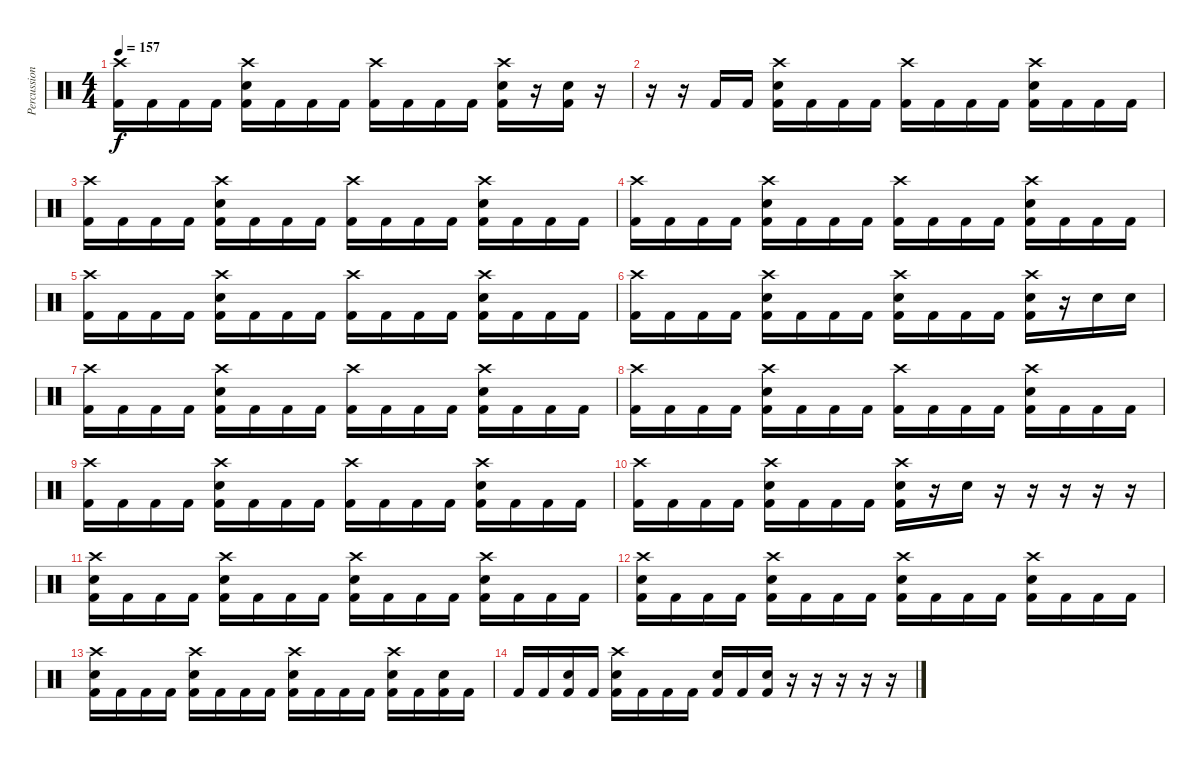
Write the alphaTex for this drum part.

\track ("Percussion" "Percussion") {instrument percussion}
\staff {score}
\articulation defaults
\ts (4 4)
\tempo 157
\clef neutral
\ks c
("Crash high (hit)" "Kick (hit) 2").16{dy f} "Kick (hit) 2".16 "Kick (hit) 2".16 "Kick (hit) 2".16 ("Crash high (hit)" "Electric Snare (hit)" "Kick (hit) 2").16 "Kick (hit) 2".16 "Kick (hit) 2".16 "Kick (hit) 2".16 ("Crash high (hit)" "Kick (hit) 2").16 "Kick (hit) 2".16 "Kick (hit) 2".16 "Kick (hit) 2".16 ("Crash high (hit)" "Electric Snare (hit)" "Kick (hit) 2").16 r.16 ("Electric Snare (hit)" "Kick (hit) 2").16 r.16 |
r.16 r.16 "Kick (hit) 2".16 "Kick (hit) 2".16 ("Crash high (hit)" "Electric Snare (hit)" "Kick (hit) 2").16 "Kick (hit) 2".16 "Kick (hit) 2".16 "Kick (hit) 2".16 ("Crash high (hit)" "Kick (hit) 2").16 "Kick (hit) 2".16 "Kick (hit) 2".16 "Kick (hit) 2".16 ("Crash high (hit)" "Electric Snare (hit)" "Kick (hit) 2").16 "Kick (hit) 2".16 "Kick (hit) 2".16 "Kick (hit) 2".16 |
("Crash high (hit)" "Kick (hit) 2").16 "Kick (hit) 2".16 "Kick (hit) 2".16 "Kick (hit) 2".16 ("Crash high (hit)" "Electric Snare (hit)" "Kick (hit) 2").16 "Kick (hit) 2".16 "Kick (hit) 2".16 "Kick (hit) 2".16 ("Crash high (hit)" "Kick (hit) 2").16 "Kick (hit) 2".16 "Kick (hit) 2".16 "Kick (hit) 2".16 ("Crash high (hit)" "Electric Snare (hit)" "Kick (hit) 2").16 "Kick (hit) 2".16 "Kick (hit) 2".16 "Kick (hit) 2".16 |
("Crash high (hit)" "Kick (hit) 2").16 "Kick (hit) 2".16 "Kick (hit) 2".16 "Kick (hit) 2".16 ("Crash high (hit)" "Electric Snare (hit)" "Kick (hit) 2").16 "Kick (hit) 2".16 "Kick (hit) 2".16 "Kick (hit) 2".16 ("Crash high (hit)" "Kick (hit) 2").16 "Kick (hit) 2".16 "Kick (hit) 2".16 "Kick (hit) 2".16 ("Crash high (hit)" "Electric Snare (hit)" "Kick (hit) 2").16 "Kick (hit) 2".16 "Kick (hit) 2".16 "Kick (hit) 2".16 |
("Crash high (hit)" "Kick (hit) 2").16 "Kick (hit) 2".16 "Kick (hit) 2".16 "Kick (hit) 2".16 ("Crash high (hit)" "Electric Snare (hit)" "Kick (hit) 2").16 "Kick (hit) 2".16 "Kick (hit) 2".16 "Kick (hit) 2".16 ("Crash high (hit)" "Kick (hit) 2").16 "Kick (hit) 2".16 "Kick (hit) 2".16 "Kick (hit) 2".16 ("Crash high (hit)" "Electric Snare (hit)" "Kick (hit) 2").16 "Kick (hit) 2".16 "Kick (hit) 2".16 "Kick (hit) 2".16 |
("Crash high (hit)" "Kick (hit) 2").16 "Kick (hit) 2".16 "Kick (hit) 2".16 "Kick (hit) 2".16 ("Crash high (hit)" "Electric Snare (hit)" "Kick (hit) 2").16 "Kick (hit) 2".16 "Kick (hit) 2".16 "Kick (hit) 2".16 ("Crash high (hit)" "Electric Snare (hit)" "Kick (hit) 2").16 "Kick (hit) 2".16 "Kick (hit) 2".16 "Kick (hit) 2".16 ("Crash high (hit)" "Electric Snare (hit)" "Kick (hit) 2").16 r.16 "Electric Snare (hit)".16 "Electric Snare (hit)".16 |
("Crash high (hit)" "Kick (hit) 2").16 "Kick (hit) 2".16 "Kick (hit) 2".16 "Kick (hit) 2".16 ("Crash high (hit)" "Electric Snare (hit)" "Kick (hit) 2").16 "Kick (hit) 2".16 "Kick (hit) 2".16 "Kick (hit) 2".16 ("Crash high (hit)" "Kick (hit) 2").16 "Kick (hit) 2".16 "Kick (hit) 2".16 "Kick (hit) 2".16 ("Crash high (hit)" "Electric Snare (hit)" "Kick (hit) 2").16 "Kick (hit) 2".16 "Kick (hit) 2".16 "Kick (hit) 2".16 |
("Crash high (hit)" "Kick (hit) 2").16 "Kick (hit) 2".16 "Kick (hit) 2".16 "Kick (hit) 2".16 ("Crash high (hit)" "Electric Snare (hit)" "Kick (hit) 2").16 "Kick (hit) 2".16 "Kick (hit) 2".16 "Kick (hit) 2".16 ("Crash high (hit)" "Kick (hit) 2").16 "Kick (hit) 2".16 "Kick (hit) 2".16 "Kick (hit) 2".16 ("Crash high (hit)" "Electric Snare (hit)" "Kick (hit) 2").16 "Kick (hit) 2".16 "Kick (hit) 2".16 "Kick (hit) 2".16 |
("Crash high (hit)" "Kick (hit) 2").16 "Kick (hit) 2".16 "Kick (hit) 2".16 "Kick (hit) 2".16 ("Crash high (hit)" "Electric Snare (hit)" "Kick (hit) 2").16 "Kick (hit) 2".16 "Kick (hit) 2".16 "Kick (hit) 2".16 ("Crash high (hit)" "Kick (hit) 2").16 "Kick (hit) 2".16 "Kick (hit) 2".16 "Kick (hit) 2".16 ("Crash high (hit)" "Electric Snare (hit)" "Kick (hit) 2").16 "Kick (hit) 2".16 "Kick (hit) 2".16 "Kick (hit) 2".16 |
("Crash high (hit)" "Kick (hit) 2").16 "Kick (hit) 2".16 "Kick (hit) 2".16 "Kick (hit) 2".16 ("Crash high (hit)" "Electric Snare (hit)" "Kick (hit) 2").16 "Kick (hit) 2".16 "Kick (hit) 2".16 "Kick (hit) 2".16 ("Crash high (hit)" "Electric Snare (hit)" "Kick (hit) 2").16 r.16 "Electric Snare (hit)".16 r.16 r.16 r.16 r.16 r.16 |
("Crash high (hit)" "Electric Snare (hit)" "Kick (hit) 2").16 "Kick (hit) 2".16 "Kick (hit) 2".16 "Kick (hit) 2".16 ("Crash high (hit)" "Electric Snare (hit)" "Kick (hit) 2").16 "Kick (hit) 2".16 "Kick (hit) 2".16 "Kick (hit) 2".16 ("Crash high (hit)" "Electric Snare (hit)" "Kick (hit) 2").16 "Kick (hit) 2".16 "Kick (hit) 2".16 "Kick (hit) 2".16 ("Crash high (hit)" "Electric Snare (hit)" "Kick (hit) 2").16 "Kick (hit) 2".16 "Kick (hit) 2".16 "Kick (hit) 2".16 |
("Crash high (hit)" "Electric Snare (hit)" "Kick (hit) 2").16 "Kick (hit) 2".16 "Kick (hit) 2".16 "Kick (hit) 2".16 ("Crash high (hit)" "Electric Snare (hit)" "Kick (hit) 2").16 "Kick (hit) 2".16 "Kick (hit) 2".16 "Kick (hit) 2".16 ("Crash high (hit)" "Electric Snare (hit)" "Kick (hit) 2").16 "Kick (hit) 2".16 "Kick (hit) 2".16 "Kick (hit) 2".16 ("Crash high (hit)" "Electric Snare (hit)" "Kick (hit) 2").16 "Kick (hit) 2".16 "Kick (hit) 2".16 "Kick (hit) 2".16 |
("Crash high (hit)" "Electric Snare (hit)" "Kick (hit) 2").16 "Kick (hit) 2".16 "Kick (hit) 2".16 "Kick (hit) 2".16 ("Crash high (hit)" "Electric Snare (hit)" "Kick (hit) 2").16 "Kick (hit) 2".16 "Kick (hit) 2".16 "Kick (hit) 2".16 ("Crash high (hit)" "Electric Snare (hit)" "Kick (hit) 2").16 "Kick (hit) 2".16 "Kick (hit) 2".16 "Kick (hit) 2".16 ("Crash high (hit)" "Electric Snare (hit)" "Kick (hit) 2").16 "Kick (hit) 2".16 ("Electric Snare (hit)" "Kick (hit) 2").16 "Kick (hit) 2".16 |
"Kick (hit) 2".16 "Kick (hit) 2".16 ("Electric Snare (hit)" "Kick (hit) 2").16 "Kick (hit) 2".16 ("Crash high (hit)" "Electric Snare (hit)" "Kick (hit) 2").16 "Kick (hit) 2".16 "Kick (hit) 2".16 "Kick (hit) 2".16 ("Electric Snare (hit)" "Kick (hit) 2").16 "Kick (hit) 2".16 ("Electric Snare (hit)" "Kick (hit) 2").16 r.16 r.16 r.16 r.16 r.16
